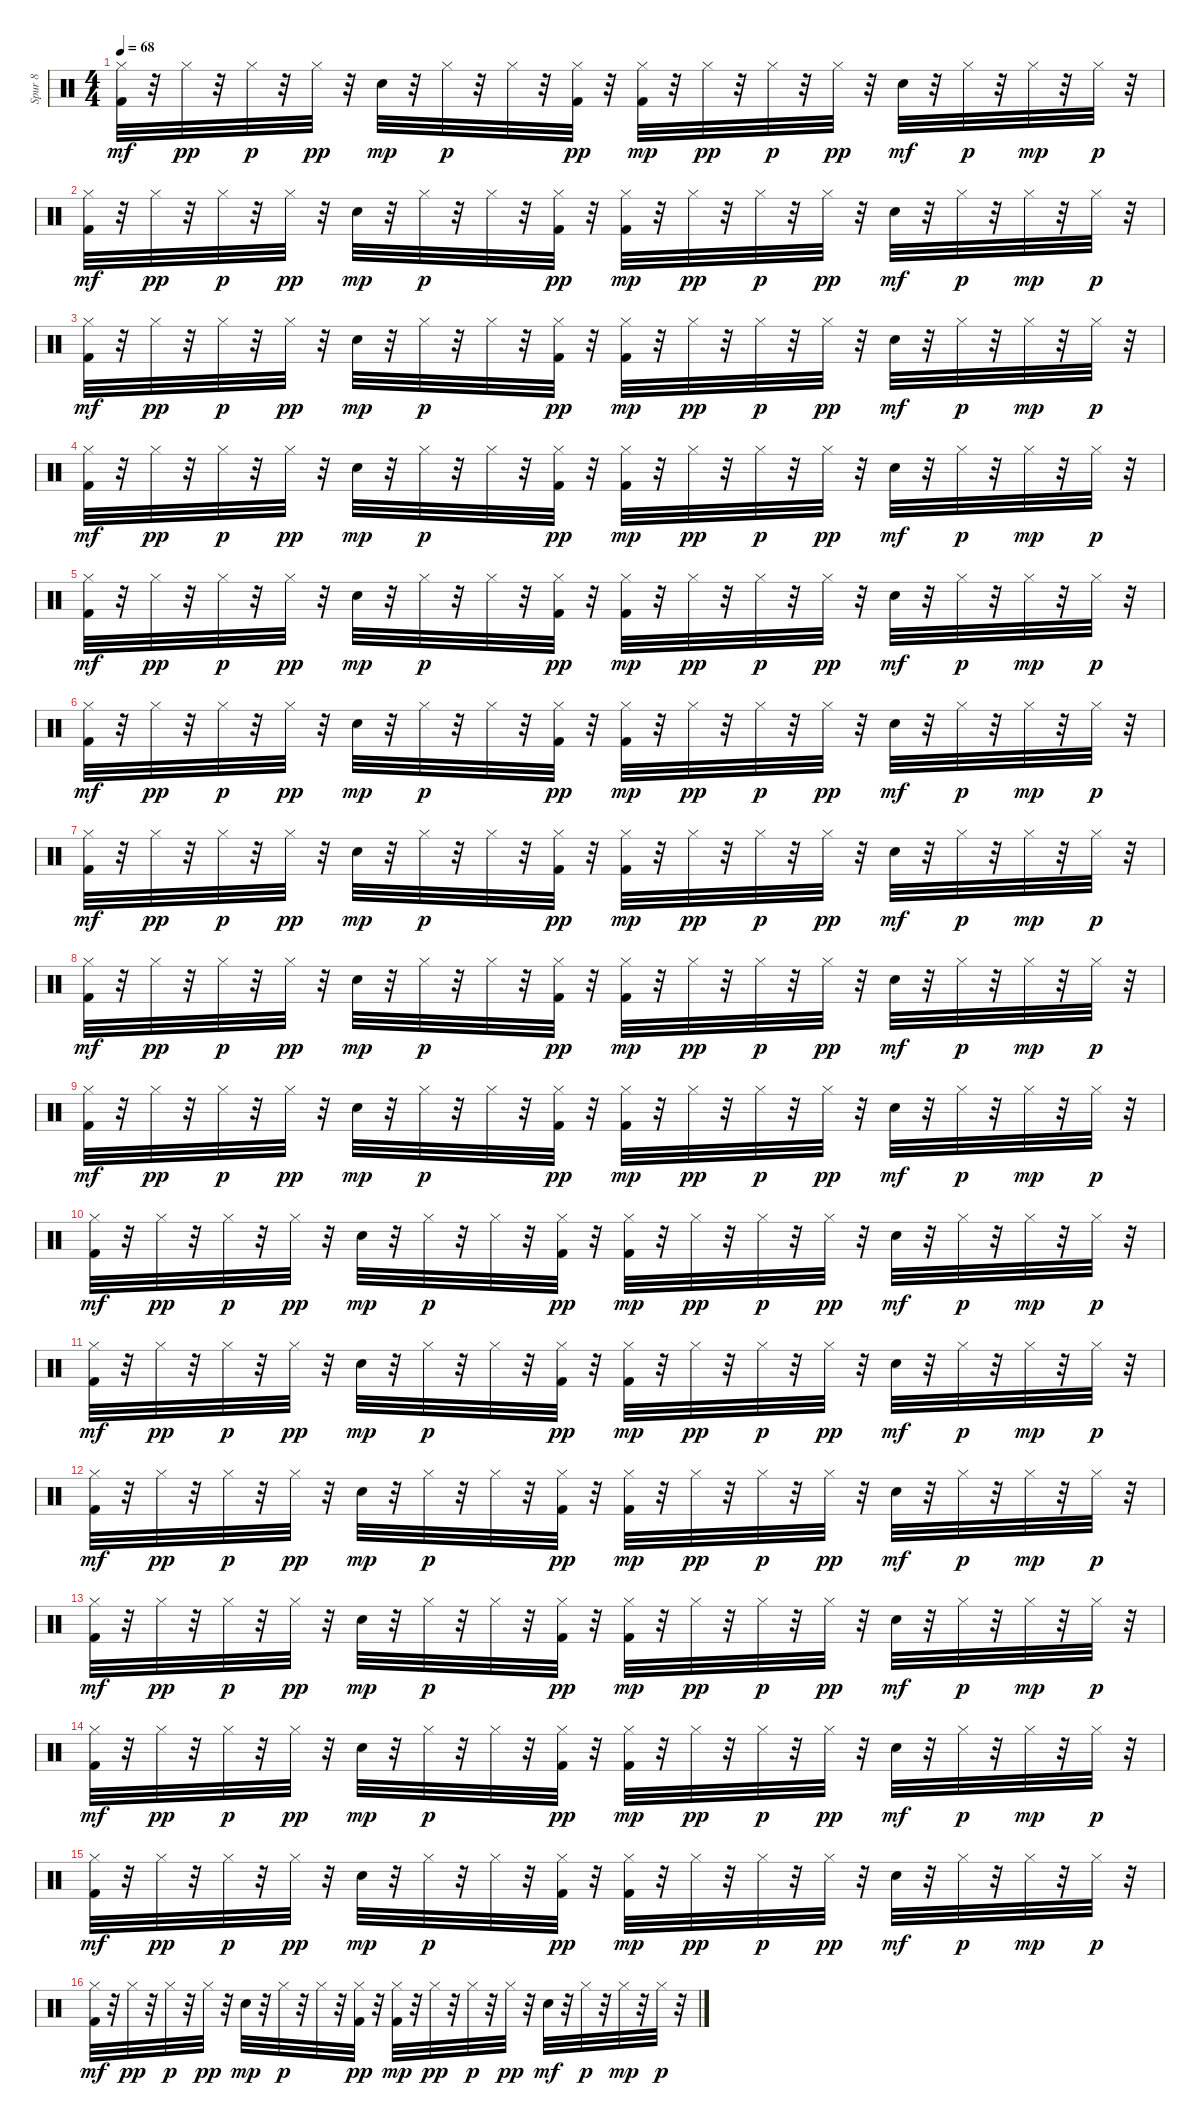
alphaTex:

\track ("Spur 8" "Spur 8") {instrument percussion}
\staff {score}
\articulation defaults
\ts (4 4)
\tempo 68
\clef neutral
\ks c
("Hi-Hat (closed)" "Kick (hit) 2").32{dy mf} r.32 "Hi-Hat (closed)".32{dy pp} r.32 "Hi-Hat (closed)".32{dy p} r.32 "Hi-Hat (closed)".32{dy pp} r.32 "Electric Snare (hit)".32{dy mp} r.32 "Hi-Hat (closed)".32{dy p} r.32 "Hi-Hat (closed)".32 r.32 ("Hi-Hat (closed)" "Kick (hit) 2").32{dy pp} r.32 ("Hi-Hat (closed)" "Kick (hit) 2").32{dy mp} r.32 "Hi-Hat (closed)".32{dy pp} r.32 "Hi-Hat (closed)".32{dy p} r.32 "Hi-Hat (closed)".32{dy pp} r.32 "Electric Snare (hit)".32{dy mf} r.32 "Hi-Hat (closed)".32{dy p} r.32 "Hi-Hat (closed)".32{dy mp} r.32 "Hi-Hat (closed)".32{dy p} r.32 |
("Hi-Hat (closed)" "Kick (hit) 2").32{dy mf} r.32 "Hi-Hat (closed)".32{dy pp} r.32 "Hi-Hat (closed)".32{dy p} r.32 "Hi-Hat (closed)".32{dy pp} r.32 "Electric Snare (hit)".32{dy mp} r.32 "Hi-Hat (closed)".32{dy p} r.32 "Hi-Hat (closed)".32 r.32 ("Hi-Hat (closed)" "Kick (hit) 2").32{dy pp} r.32 ("Hi-Hat (closed)" "Kick (hit) 2").32{dy mp} r.32 "Hi-Hat (closed)".32{dy pp} r.32 "Hi-Hat (closed)".32{dy p} r.32 "Hi-Hat (closed)".32{dy pp} r.32 "Electric Snare (hit)".32{dy mf} r.32 "Hi-Hat (closed)".32{dy p} r.32 "Hi-Hat (closed)".32{dy mp} r.32 "Hi-Hat (closed)".32{dy p} r.32 |
("Hi-Hat (closed)" "Kick (hit) 2").32{dy mf} r.32 "Hi-Hat (closed)".32{dy pp} r.32 "Hi-Hat (closed)".32{dy p} r.32 "Hi-Hat (closed)".32{dy pp} r.32 "Electric Snare (hit)".32{dy mp} r.32 "Hi-Hat (closed)".32{dy p} r.32 "Hi-Hat (closed)".32 r.32 ("Hi-Hat (closed)" "Kick (hit) 2").32{dy pp} r.32 ("Hi-Hat (closed)" "Kick (hit) 2").32{dy mp} r.32 "Hi-Hat (closed)".32{dy pp} r.32 "Hi-Hat (closed)".32{dy p} r.32 "Hi-Hat (closed)".32{dy pp} r.32 "Electric Snare (hit)".32{dy mf} r.32 "Hi-Hat (closed)".32{dy p} r.32 "Hi-Hat (closed)".32{dy mp} r.32 "Hi-Hat (closed)".32{dy p} r.32 |
("Hi-Hat (closed)" "Kick (hit) 2").32{dy mf} r.32 "Hi-Hat (closed)".32{dy pp} r.32 "Hi-Hat (closed)".32{dy p} r.32 "Hi-Hat (closed)".32{dy pp} r.32 "Electric Snare (hit)".32{dy mp} r.32 "Hi-Hat (closed)".32{dy p} r.32 "Hi-Hat (closed)".32 r.32 ("Hi-Hat (closed)" "Kick (hit) 2").32{dy pp} r.32 ("Hi-Hat (closed)" "Kick (hit) 2").32{dy mp} r.32 "Hi-Hat (closed)".32{dy pp} r.32 "Hi-Hat (closed)".32{dy p} r.32 "Hi-Hat (closed)".32{dy pp} r.32 "Electric Snare (hit)".32{dy mf} r.32 "Hi-Hat (closed)".32{dy p} r.32 "Hi-Hat (closed)".32{dy mp} r.32 "Hi-Hat (closed)".32{dy p} r.32 |
("Hi-Hat (closed)" "Kick (hit) 2").32{dy mf} r.32 "Hi-Hat (closed)".32{dy pp} r.32 "Hi-Hat (closed)".32{dy p} r.32 "Hi-Hat (closed)".32{dy pp} r.32 "Electric Snare (hit)".32{dy mp} r.32 "Hi-Hat (closed)".32{dy p} r.32 "Hi-Hat (closed)".32 r.32 ("Hi-Hat (closed)" "Kick (hit) 2").32{dy pp} r.32 ("Hi-Hat (closed)" "Kick (hit) 2").32{dy mp} r.32 "Hi-Hat (closed)".32{dy pp} r.32 "Hi-Hat (closed)".32{dy p} r.32 "Hi-Hat (closed)".32{dy pp} r.32 "Electric Snare (hit)".32{dy mf} r.32 "Hi-Hat (closed)".32{dy p} r.32 "Hi-Hat (closed)".32{dy mp} r.32 "Hi-Hat (closed)".32{dy p} r.32 |
("Hi-Hat (closed)" "Kick (hit) 2").32{dy mf} r.32 "Hi-Hat (closed)".32{dy pp} r.32 "Hi-Hat (closed)".32{dy p} r.32 "Hi-Hat (closed)".32{dy pp} r.32 "Electric Snare (hit)".32{dy mp} r.32 "Hi-Hat (closed)".32{dy p} r.32 "Hi-Hat (closed)".32 r.32 ("Hi-Hat (closed)" "Kick (hit) 2").32{dy pp} r.32 ("Hi-Hat (closed)" "Kick (hit) 2").32{dy mp} r.32 "Hi-Hat (closed)".32{dy pp} r.32 "Hi-Hat (closed)".32{dy p} r.32 "Hi-Hat (closed)".32{dy pp} r.32 "Electric Snare (hit)".32{dy mf} r.32 "Hi-Hat (closed)".32{dy p} r.32 "Hi-Hat (closed)".32{dy mp} r.32 "Hi-Hat (closed)".32{dy p} r.32 |
("Hi-Hat (closed)" "Kick (hit) 2").32{dy mf} r.32 "Hi-Hat (closed)".32{dy pp} r.32 "Hi-Hat (closed)".32{dy p} r.32 "Hi-Hat (closed)".32{dy pp} r.32 "Electric Snare (hit)".32{dy mp} r.32 "Hi-Hat (closed)".32{dy p} r.32 "Hi-Hat (closed)".32 r.32 ("Hi-Hat (closed)" "Kick (hit) 2").32{dy pp} r.32 ("Hi-Hat (closed)" "Kick (hit) 2").32{dy mp} r.32 "Hi-Hat (closed)".32{dy pp} r.32 "Hi-Hat (closed)".32{dy p} r.32 "Hi-Hat (closed)".32{dy pp} r.32 "Electric Snare (hit)".32{dy mf} r.32 "Hi-Hat (closed)".32{dy p} r.32 "Hi-Hat (closed)".32{dy mp} r.32 "Hi-Hat (closed)".32{dy p} r.32 |
("Hi-Hat (closed)" "Kick (hit) 2").32{dy mf} r.32 "Hi-Hat (closed)".32{dy pp} r.32 "Hi-Hat (closed)".32{dy p} r.32 "Hi-Hat (closed)".32{dy pp} r.32 "Electric Snare (hit)".32{dy mp} r.32 "Hi-Hat (closed)".32{dy p} r.32 "Hi-Hat (closed)".32 r.32 ("Hi-Hat (closed)" "Kick (hit) 2").32{dy pp} r.32 ("Hi-Hat (closed)" "Kick (hit) 2").32{dy mp} r.32 "Hi-Hat (closed)".32{dy pp} r.32 "Hi-Hat (closed)".32{dy p} r.32 "Hi-Hat (closed)".32{dy pp} r.32 "Electric Snare (hit)".32{dy mf} r.32 "Hi-Hat (closed)".32{dy p} r.32 "Hi-Hat (closed)".32{dy mp} r.32 "Hi-Hat (closed)".32{dy p} r.32 |
("Hi-Hat (closed)" "Kick (hit) 2").32{dy mf} r.32 "Hi-Hat (closed)".32{dy pp} r.32 "Hi-Hat (closed)".32{dy p} r.32 "Hi-Hat (closed)".32{dy pp} r.32 "Electric Snare (hit)".32{dy mp} r.32 "Hi-Hat (closed)".32{dy p} r.32 "Hi-Hat (closed)".32 r.32 ("Hi-Hat (closed)" "Kick (hit) 2").32{dy pp} r.32 ("Hi-Hat (closed)" "Kick (hit) 2").32{dy mp} r.32 "Hi-Hat (closed)".32{dy pp} r.32 "Hi-Hat (closed)".32{dy p} r.32 "Hi-Hat (closed)".32{dy pp} r.32 "Electric Snare (hit)".32{dy mf} r.32 "Hi-Hat (closed)".32{dy p} r.32 "Hi-Hat (closed)".32{dy mp} r.32 "Hi-Hat (closed)".32{dy p} r.32 |
("Hi-Hat (closed)" "Kick (hit) 2").32{dy mf} r.32 "Hi-Hat (closed)".32{dy pp} r.32 "Hi-Hat (closed)".32{dy p} r.32 "Hi-Hat (closed)".32{dy pp} r.32 "Electric Snare (hit)".32{dy mp} r.32 "Hi-Hat (closed)".32{dy p} r.32 "Hi-Hat (closed)".32 r.32 ("Hi-Hat (closed)" "Kick (hit) 2").32{dy pp} r.32 ("Hi-Hat (closed)" "Kick (hit) 2").32{dy mp} r.32 "Hi-Hat (closed)".32{dy pp} r.32 "Hi-Hat (closed)".32{dy p} r.32 "Hi-Hat (closed)".32{dy pp} r.32 "Electric Snare (hit)".32{dy mf} r.32 "Hi-Hat (closed)".32{dy p} r.32 "Hi-Hat (closed)".32{dy mp} r.32 "Hi-Hat (closed)".32{dy p} r.32 |
("Hi-Hat (closed)" "Kick (hit) 2").32{dy mf} r.32 "Hi-Hat (closed)".32{dy pp} r.32 "Hi-Hat (closed)".32{dy p} r.32 "Hi-Hat (closed)".32{dy pp} r.32 "Electric Snare (hit)".32{dy mp} r.32 "Hi-Hat (closed)".32{dy p} r.32 "Hi-Hat (closed)".32 r.32 ("Hi-Hat (closed)" "Kick (hit) 2").32{dy pp} r.32 ("Hi-Hat (closed)" "Kick (hit) 2").32{dy mp} r.32 "Hi-Hat (closed)".32{dy pp} r.32 "Hi-Hat (closed)".32{dy p} r.32 "Hi-Hat (closed)".32{dy pp} r.32 "Electric Snare (hit)".32{dy mf} r.32 "Hi-Hat (closed)".32{dy p} r.32 "Hi-Hat (closed)".32{dy mp} r.32 "Hi-Hat (closed)".32{dy p} r.32 |
("Hi-Hat (closed)" "Kick (hit) 2").32{dy mf} r.32 "Hi-Hat (closed)".32{dy pp} r.32 "Hi-Hat (closed)".32{dy p} r.32 "Hi-Hat (closed)".32{dy pp} r.32 "Electric Snare (hit)".32{dy mp} r.32 "Hi-Hat (closed)".32{dy p} r.32 "Hi-Hat (closed)".32 r.32 ("Hi-Hat (closed)" "Kick (hit) 2").32{dy pp} r.32 ("Hi-Hat (closed)" "Kick (hit) 2").32{dy mp} r.32 "Hi-Hat (closed)".32{dy pp} r.32 "Hi-Hat (closed)".32{dy p} r.32 "Hi-Hat (closed)".32{dy pp} r.32 "Electric Snare (hit)".32{dy mf} r.32 "Hi-Hat (closed)".32{dy p} r.32 "Hi-Hat (closed)".32{dy mp} r.32 "Hi-Hat (closed)".32{dy p} r.32 |
("Hi-Hat (closed)" "Kick (hit) 2").32{dy mf} r.32 "Hi-Hat (closed)".32{dy pp} r.32 "Hi-Hat (closed)".32{dy p} r.32 "Hi-Hat (closed)".32{dy pp} r.32 "Electric Snare (hit)".32{dy mp} r.32 "Hi-Hat (closed)".32{dy p} r.32 "Hi-Hat (closed)".32 r.32 ("Hi-Hat (closed)" "Kick (hit) 2").32{dy pp} r.32 ("Hi-Hat (closed)" "Kick (hit) 2").32{dy mp} r.32 "Hi-Hat (closed)".32{dy pp} r.32 "Hi-Hat (closed)".32{dy p} r.32 "Hi-Hat (closed)".32{dy pp} r.32 "Electric Snare (hit)".32{dy mf} r.32 "Hi-Hat (closed)".32{dy p} r.32 "Hi-Hat (closed)".32{dy mp} r.32 "Hi-Hat (closed)".32{dy p} r.32 |
("Hi-Hat (closed)" "Kick (hit) 2").32{dy mf} r.32 "Hi-Hat (closed)".32{dy pp} r.32 "Hi-Hat (closed)".32{dy p} r.32 "Hi-Hat (closed)".32{dy pp} r.32 "Electric Snare (hit)".32{dy mp} r.32 "Hi-Hat (closed)".32{dy p} r.32 "Hi-Hat (closed)".32 r.32 ("Hi-Hat (closed)" "Kick (hit) 2").32{dy pp} r.32 ("Hi-Hat (closed)" "Kick (hit) 2").32{dy mp} r.32 "Hi-Hat (closed)".32{dy pp} r.32 "Hi-Hat (closed)".32{dy p} r.32 "Hi-Hat (closed)".32{dy pp} r.32 "Electric Snare (hit)".32{dy mf} r.32 "Hi-Hat (closed)".32{dy p} r.32 "Hi-Hat (closed)".32{dy mp} r.32 "Hi-Hat (closed)".32{dy p} r.32 |
("Hi-Hat (closed)" "Kick (hit) 2").32{dy mf} r.32 "Hi-Hat (closed)".32{dy pp} r.32 "Hi-Hat (closed)".32{dy p} r.32 "Hi-Hat (closed)".32{dy pp} r.32 "Electric Snare (hit)".32{dy mp} r.32 "Hi-Hat (closed)".32{dy p} r.32 "Hi-Hat (closed)".32 r.32 ("Hi-Hat (closed)" "Kick (hit) 2").32{dy pp} r.32 ("Hi-Hat (closed)" "Kick (hit) 2").32{dy mp} r.32 "Hi-Hat (closed)".32{dy pp} r.32 "Hi-Hat (closed)".32{dy p} r.32 "Hi-Hat (closed)".32{dy pp} r.32 "Electric Snare (hit)".32{dy mf} r.32 "Hi-Hat (closed)".32{dy p} r.32 "Hi-Hat (closed)".32{dy mp} r.32 "Hi-Hat (closed)".32{dy p} r.32 |
("Hi-Hat (closed)" "Kick (hit) 2").32{dy mf} r.32 "Hi-Hat (closed)".32{dy pp} r.32 "Hi-Hat (closed)".32{dy p} r.32 "Hi-Hat (closed)".32{dy pp} r.32 "Electric Snare (hit)".32{dy mp} r.32 "Hi-Hat (closed)".32{dy p} r.32 "Hi-Hat (closed)".32 r.32 ("Hi-Hat (closed)" "Kick (hit) 2").32{dy pp} r.32 ("Hi-Hat (closed)" "Kick (hit) 2").32{dy mp} r.32 "Hi-Hat (closed)".32{dy pp} r.32 "Hi-Hat (closed)".32{dy p} r.32 "Hi-Hat (closed)".32{dy pp} r.32 "Electric Snare (hit)".32{dy mf} r.32 "Hi-Hat (closed)".32{dy p} r.32 "Hi-Hat (closed)".32{dy mp} r.32 "Hi-Hat (closed)".32{dy p} r.32
